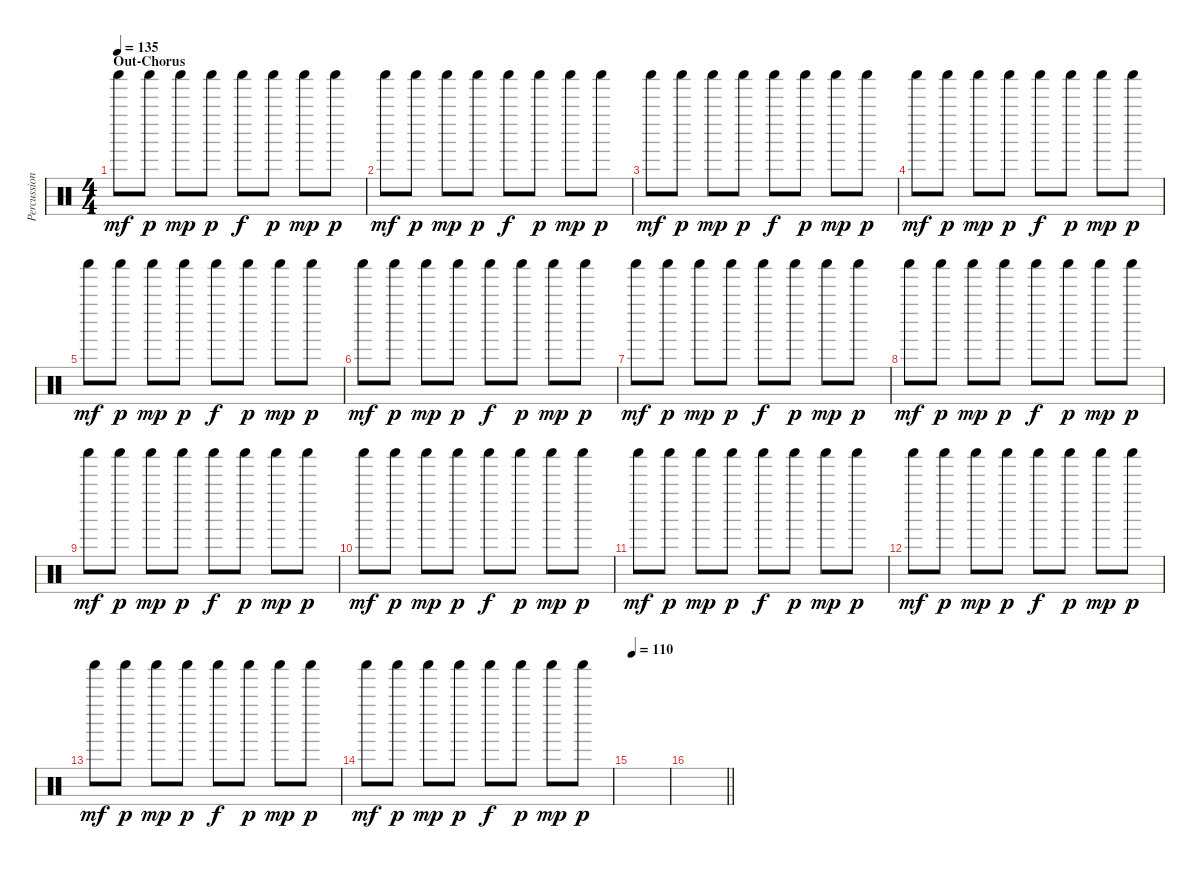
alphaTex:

\track ("Percussion" "Percussion") {instrument percussion}
\staff {score}
\articulation defaults
\ts (4 4)
\section ("" "Out-Chorus")
\tempo 135
\clef neutral
\ks c "Shaker (hit)".8{dy mf} "Shaker (hit)".8{dy p} "Shaker (hit)".8{dy mp} "Shaker (hit)".8{dy p} "Shaker (hit)".8{dy f} "Shaker (hit)".8{dy p} "Shaker (hit)".8{dy mp} "Shaker (hit)".8{dy p}
|
"Shaker (hit)".8{dy mf} "Shaker (hit)".8{dy p} "Shaker (hit)".8{dy mp} "Shaker (hit)".8{dy p} "Shaker (hit)".8{dy f} "Shaker (hit)".8{dy p} "Shaker (hit)".8{dy mp} "Shaker (hit)".8{dy p} |
"Shaker (hit)".8{dy mf} "Shaker (hit)".8{dy p} "Shaker (hit)".8{dy mp} "Shaker (hit)".8{dy p} "Shaker (hit)".8{dy f} "Shaker (hit)".8{dy p} "Shaker (hit)".8{dy mp} "Shaker (hit)".8{dy p} |
"Shaker (hit)".8{dy mf} "Shaker (hit)".8{dy p} "Shaker (hit)".8{dy mp} "Shaker (hit)".8{dy p} "Shaker (hit)".8{dy f} "Shaker (hit)".8{dy p} "Shaker (hit)".8{dy mp} "Shaker (hit)".8{dy p} |
"Shaker (hit)".8{dy mf} "Shaker (hit)".8{dy p} "Shaker (hit)".8{dy mp} "Shaker (hit)".8{dy p} "Shaker (hit)".8{dy f} "Shaker (hit)".8{dy p} "Shaker (hit)".8{dy mp} "Shaker (hit)".8{dy p} |
"Shaker (hit)".8{dy mf} "Shaker (hit)".8{dy p} "Shaker (hit)".8{dy mp} "Shaker (hit)".8{dy p} "Shaker (hit)".8{dy f} "Shaker (hit)".8{dy p} "Shaker (hit)".8{dy mp} "Shaker (hit)".8{dy p} |
"Shaker (hit)".8{dy mf} "Shaker (hit)".8{dy p} "Shaker (hit)".8{dy mp} "Shaker (hit)".8{dy p} "Shaker (hit)".8{dy f} "Shaker (hit)".8{dy p} "Shaker (hit)".8{dy mp} "Shaker (hit)".8{dy p} |
"Shaker (hit)".8{dy mf} "Shaker (hit)".8{dy p} "Shaker (hit)".8{dy mp} "Shaker (hit)".8{dy p} "Shaker (hit)".8{dy f} "Shaker (hit)".8{dy p} "Shaker (hit)".8{dy mp} "Shaker (hit)".8{dy p} |
"Shaker (hit)".8{dy mf} "Shaker (hit)".8{dy p} "Shaker (hit)".8{dy mp} "Shaker (hit)".8{dy p} "Shaker (hit)".8{dy f} "Shaker (hit)".8{dy p} "Shaker (hit)".8{dy mp} "Shaker (hit)".8{dy p} |
"Shaker (hit)".8{dy mf} "Shaker (hit)".8{dy p} "Shaker (hit)".8{dy mp} "Shaker (hit)".8{dy p} "Shaker (hit)".8{dy f} "Shaker (hit)".8{dy p} "Shaker (hit)".8{dy mp} "Shaker (hit)".8{dy p} |
"Shaker (hit)".8{dy mf} "Shaker (hit)".8{dy p} "Shaker (hit)".8{dy mp} "Shaker (hit)".8{dy p} "Shaker (hit)".8{dy f} "Shaker (hit)".8{dy p} "Shaker (hit)".8{dy mp} "Shaker (hit)".8{dy p} |
"Shaker (hit)".8{dy mf} "Shaker (hit)".8{dy p} "Shaker (hit)".8{dy mp} "Shaker (hit)".8{dy p} "Shaker (hit)".8{dy f} "Shaker (hit)".8{dy p} "Shaker (hit)".8{dy mp} "Shaker (hit)".8{dy p} |
"Shaker (hit)".8{dy mf} "Shaker (hit)".8{dy p} "Shaker (hit)".8{dy mp} "Shaker (hit)".8{dy p} "Shaker (hit)".8{dy f} "Shaker (hit)".8{dy p} "Shaker (hit)".8{dy mp} "Shaker (hit)".8{dy p} |
"Shaker (hit)".8{dy mf} "Shaker (hit)".8{dy p} "Shaker (hit)".8{dy mp} "Shaker (hit)".8{dy p} "Shaker (hit)".8{dy f} "Shaker (hit)".8{dy p} "Shaker (hit)".8{dy mp} "Shaker (hit)".8{dy p} |
\tempo 110
|
\barLineRight lightlight
